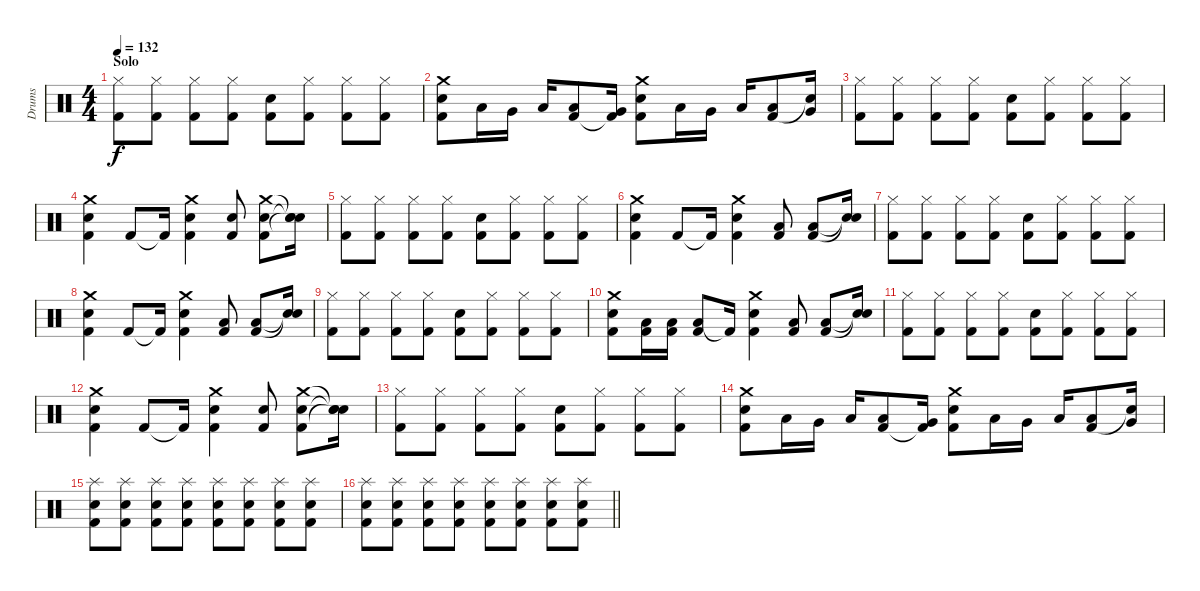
\track ("Drums" "Drums") {instrument percussion}
\staff {score}
\articulation defaults
\ts (4 4)
\section ("" "Solo")
\tempo 132
\clef neutral
\ks c
("Hi-Hat (closed)" "Kick (hit) 2").8{dy f} ("Hi-Hat (closed)" "Kick (hit) 2").8 ("Hi-Hat (closed)" "Kick (hit) 2").8 ("Hi-Hat (closed)" "Kick (hit) 2").8 ("Electric Snare (hit)" "Kick (hit) 2").8 ("Hi-Hat (closed)" "Kick (hit) 2").8 ("Hi-Hat (closed)" "Kick (hit) 2").8 ("Hi-Hat (closed)" "Kick (hit) 2").8 |
("Crash medium (hit)" "Electric Snare (hit)" "Kick (hit) 2").8 "Low Tom (hit)".16 "Very Low Tom (hit)".16 "Low Floor Tom (hit)".16 ("Low Floor Tom (hit)" "Kick (hit) 2").8 ("Very Low Tom (hit)" "Kick (hit) 2"{t}).16 ("Crash medium (hit)" "Electric Snare (hit)" "Kick (hit) 2").8 "Low Tom (hit)".16 "Very Low Tom (hit)".16 "Low Floor Tom (hit)".16 ("Low Floor Tom (hit)" "Kick (hit) 2").8 ("Very Low Tom (hit)" "Snare (hit)"{t}).16 |
("Hi-Hat (closed)" "Kick (hit) 2").8 ("Hi-Hat (closed)" "Kick (hit) 2").8 ("Hi-Hat (closed)" "Kick (hit) 2").8 ("Hi-Hat (closed)" "Kick (hit) 2").8 ("Electric Snare (hit)" "Kick (hit) 2").8 ("Hi-Hat (closed)" "Kick (hit) 2").8 ("Hi-Hat (closed)" "Kick (hit) 2").8 ("Hi-Hat (closed)" "Kick (hit) 2").8 |
("Crash medium (hit)" "Electric Snare (hit)" "Kick (hit) 2").4 "Kick (hit) 2".8 "Kick (hit) 2"{t}.16 ("Crash medium (hit)" "Electric Snare (hit)" "Kick (hit) 2").4 ("Electric Snare (hit)" "Kick (hit) 2").8 ("Crash medium (hit)" "Electric Snare (hit)" "Kick (hit) 2").8 ("Snare (hit)"{t} "Snare (hit)"{t} "Snare (hit)"{t}).16 |
("Hi-Hat (closed)" "Kick (hit) 2").8 ("Hi-Hat (closed)" "Kick (hit) 2").8 ("Hi-Hat (closed)" "Kick (hit) 2").8 ("Hi-Hat (closed)" "Kick (hit) 2").8 ("Electric Snare (hit)" "Kick (hit) 2").8 ("Hi-Hat (closed)" "Kick (hit) 2").8 ("Hi-Hat (closed)" "Kick (hit) 2").8 ("Hi-Hat (closed)" "Kick (hit) 2").8 |
("Crash medium (hit)" "Electric Snare (hit)" "Kick (hit) 2").4 "Kick (hit) 2".8 "Kick (hit) 2"{t}.16 ("Crash medium (hit)" "Electric Snare (hit)" "Kick (hit) 2").4 ("Low Floor Tom (hit)" "Kick (hit) 2").8 ("Low Floor Tom (hit)" "Kick (hit) 2").8 ("Snare (hit)"{t} "Snare (hit)"{t}).16 |
("Hi-Hat (closed)" "Kick (hit) 2").8 ("Hi-Hat (closed)" "Kick (hit) 2").8 ("Hi-Hat (closed)" "Kick (hit) 2").8 ("Hi-Hat (closed)" "Kick (hit) 2").8 ("Electric Snare (hit)" "Kick (hit) 2").8 ("Hi-Hat (closed)" "Kick (hit) 2").8 ("Hi-Hat (closed)" "Kick (hit) 2").8 ("Hi-Hat (closed)" "Kick (hit) 2").8 |
("Crash medium (hit)" "Electric Snare (hit)" "Kick (hit) 2").4 "Kick (hit) 2".8 "Kick (hit) 2"{t}.16 ("Crash medium (hit)" "Electric Snare (hit)" "Kick (hit) 2").4 ("Low Floor Tom (hit)" "Kick (hit) 2").8 ("Low Floor Tom (hit)" "Kick (hit) 2").8 ("Snare (hit)"{t} "Snare (hit)"{t}).16 |
("Hi-Hat (closed)" "Kick (hit) 2").8 ("Hi-Hat (closed)" "Kick (hit) 2").8 ("Hi-Hat (closed)" "Kick (hit) 2").8 ("Hi-Hat (closed)" "Kick (hit) 2").8 ("Electric Snare (hit)" "Kick (hit) 2").8 ("Hi-Hat (closed)" "Kick (hit) 2").8 ("Hi-Hat (closed)" "Kick (hit) 2").8 ("Hi-Hat (closed)" "Kick (hit) 2").8 |
("Crash medium (hit)" "Electric Snare (hit)" "Kick (hit) 2").8 ("Low Floor Tom (hit)" "Kick (hit) 2").16 ("Low Floor Tom (hit)" "Kick (hit) 2").16 ("Low Floor Tom (hit)" "Kick (hit) 2").8 "Kick (hit) 2"{t}.16 ("Crash medium (hit)" "Electric Snare (hit)" "Kick (hit) 2").4 ("Low Floor Tom (hit)" "Kick (hit) 2").8 ("Low Floor Tom (hit)" "Kick (hit) 2").8 ("Snare (hit)"{t} "Snare (hit)"{t}).16 |
("Hi-Hat (closed)" "Kick (hit) 2").8 ("Hi-Hat (closed)" "Kick (hit) 2").8 ("Hi-Hat (closed)" "Kick (hit) 2").8 ("Hi-Hat (closed)" "Kick (hit) 2").8 ("Electric Snare (hit)" "Kick (hit) 2").8 ("Hi-Hat (closed)" "Kick (hit) 2").8 ("Hi-Hat (closed)" "Kick (hit) 2").8 ("Hi-Hat (closed)" "Kick (hit) 2").8 |
("Crash medium (hit)" "Electric Snare (hit)" "Kick (hit) 2").4 "Kick (hit) 2".8 "Kick (hit) 2"{t}.16 ("Crash medium (hit)" "Electric Snare (hit)" "Kick (hit) 2").4 ("Electric Snare (hit)" "Kick (hit) 2").8 ("Crash medium (hit)" "Electric Snare (hit)" "Kick (hit) 2").8 ("Snare (hit)"{t} "Snare (hit)"{t} "Snare (hit)"{t}).16 |
("Hi-Hat (closed)" "Kick (hit) 2").8 ("Hi-Hat (closed)" "Kick (hit) 2").8 ("Hi-Hat (closed)" "Kick (hit) 2").8 ("Hi-Hat (closed)" "Kick (hit) 2").8 ("Electric Snare (hit)" "Kick (hit) 2").8 ("Hi-Hat (closed)" "Kick (hit) 2").8 ("Hi-Hat (closed)" "Kick (hit) 2").8 ("Hi-Hat (closed)" "Kick (hit) 2").8 |
("Crash medium (hit)" "Electric Snare (hit)" "Kick (hit) 2").8 "Low Tom (hit)".16 "Very Low Tom (hit)".16 "Low Floor Tom (hit)".16 ("Low Floor Tom (hit)" "Kick (hit) 2").8 ("Very Low Tom (hit)" "Kick (hit) 2"{t}).16 ("Crash medium (hit)" "Electric Snare (hit)" "Kick (hit) 2").8 "Low Tom (hit)".16 "Very Low Tom (hit)".16 "Low Floor Tom (hit)".16 ("Low Floor Tom (hit)" "Kick (hit) 2").8 ("Very Low Tom (hit)" "Snare (hit)"{t}).16 |
("Splash (hit)" "Electric Snare (hit)" "Kick (hit) 2").8 ("Splash (hit)" "Electric Snare (hit)" "Kick (hit) 2").8 ("Splash (hit)" "Electric Snare (hit)" "Kick (hit) 2").8 ("Splash (hit)" "Electric Snare (hit)" "Kick (hit) 2").8 ("Splash (hit)" "Electric Snare (hit)" "Kick (hit) 2").8 ("Splash (hit)" "Electric Snare (hit)" "Kick (hit) 2").8 ("Splash (hit)" "Electric Snare (hit)" "Kick (hit) 2").8 ("Splash (hit)" "Electric Snare (hit)" "Kick (hit) 2").8 |
\barLineRight lightlight
("Splash (hit)" "Electric Snare (hit)" "Kick (hit) 2").8 ("Splash (hit)" "Electric Snare (hit)" "Kick (hit) 2").8 ("Splash (hit)" "Electric Snare (hit)" "Kick (hit) 2").8 ("Splash (hit)" "Electric Snare (hit)" "Kick (hit) 2").8 ("Splash (hit)" "Electric Snare (hit)" "Kick (hit) 2").8 ("Splash (hit)" "Electric Snare (hit)" "Kick (hit) 2").8 ("Splash (hit)" "Electric Snare (hit)" "Kick (hit) 2").8 ("Splash (hit)" "Electric Snare (hit)" "Kick (hit) 2").8
